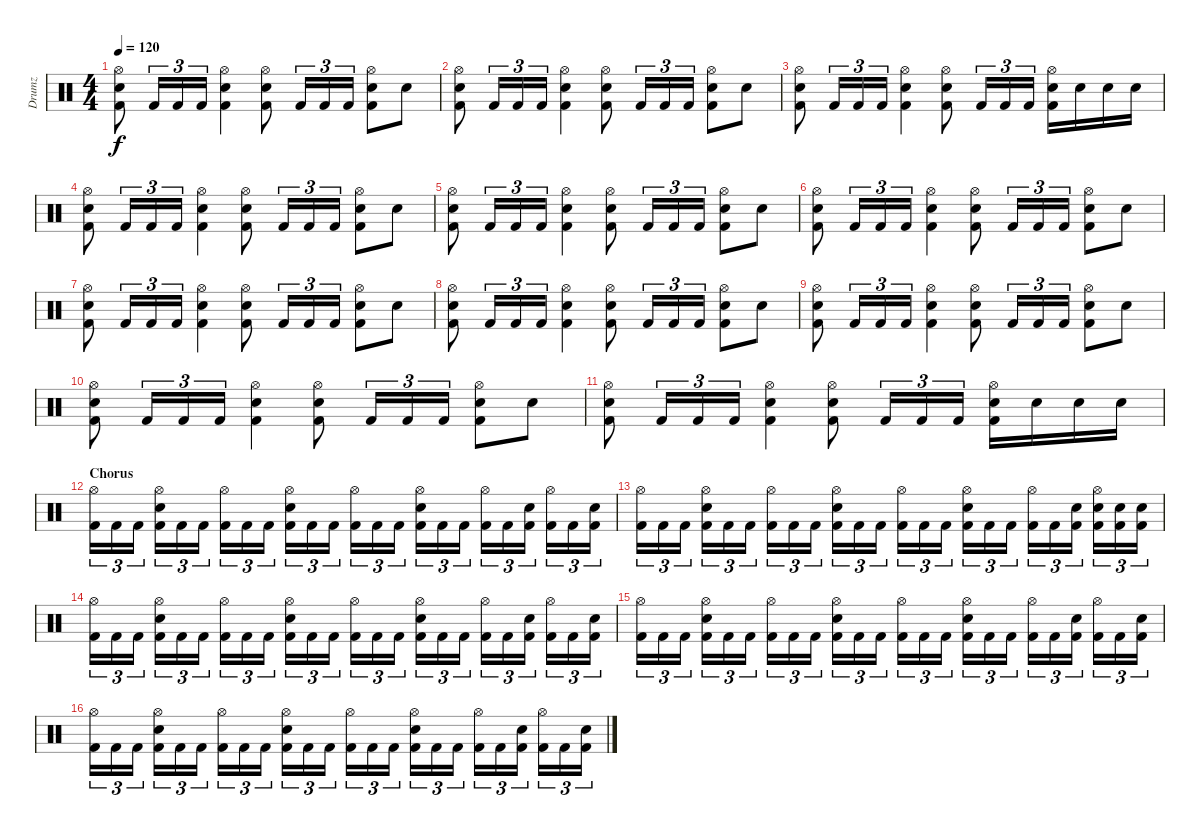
\track ("Drumz" "Drumz") {instrument percussion}
\staff {score}
\articulation defaults
\ts (4 4)
\tempo 120
\clef neutral
\ks c
("Hi-Hat (open)" "Snare (hit) 2" "Kick (hit) 2").8{dy f} "Kick (hit) 2".16{tu (3 2)} "Kick (hit) 2".16{tu (3 2)} "Kick (hit) 2".16{tu (3 2)} ("Hi-Hat (open)" "Snare (hit) 2" "Kick (hit) 2").4 ("Hi-Hat (open)" "Snare (hit) 2" "Kick (hit) 2").8 "Kick (hit) 2".16{tu (3 2)} "Kick (hit) 2".16{tu (3 2)} "Kick (hit) 2".16{tu (3 2)} ("Hi-Hat (open)" "Snare (hit) 2" "Kick (hit) 2").8 "Snare (hit) 2".8 |
("Hi-Hat (open)" "Snare (hit) 2" "Kick (hit) 2").8 "Kick (hit) 2".16{tu (3 2)} "Kick (hit) 2".16{tu (3 2)} "Kick (hit) 2".16{tu (3 2)} ("Hi-Hat (open)" "Snare (hit) 2" "Kick (hit) 2").4 ("Hi-Hat (open)" "Snare (hit) 2" "Kick (hit) 2").8 "Kick (hit) 2".16{tu (3 2)} "Kick (hit) 2".16{tu (3 2)} "Kick (hit) 2".16{tu (3 2)} ("Hi-Hat (open)" "Snare (hit) 2" "Kick (hit) 2").8 "Snare (hit) 2".8 |
("Hi-Hat (open)" "Snare (hit) 2" "Kick (hit) 2").8 "Kick (hit) 2".16{tu (3 2)} "Kick (hit) 2".16{tu (3 2)} "Kick (hit) 2".16{tu (3 2)} ("Hi-Hat (open)" "Snare (hit) 2" "Kick (hit) 2").4 ("Hi-Hat (open)" "Snare (hit) 2" "Kick (hit) 2").8 "Kick (hit) 2".16{tu (3 2)} "Kick (hit) 2".16{tu (3 2)} "Kick (hit) 2".16{tu (3 2)} ("Hi-Hat (open)" "Snare (hit) 2" "Kick (hit) 2").16 "Snare (hit) 2".16 "Snare (hit) 2".16 "Snare (hit) 2".16 |
("Hi-Hat (open)" "Snare (hit) 2" "Kick (hit) 2").8 "Kick (hit) 2".16{tu (3 2)} "Kick (hit) 2".16{tu (3 2)} "Kick (hit) 2".16{tu (3 2)} ("Hi-Hat (open)" "Snare (hit) 2" "Kick (hit) 2").4 ("Hi-Hat (open)" "Snare (hit) 2" "Kick (hit) 2").8 "Kick (hit) 2".16{tu (3 2)} "Kick (hit) 2".16{tu (3 2)} "Kick (hit) 2".16{tu (3 2)} ("Hi-Hat (open)" "Snare (hit) 2" "Kick (hit) 2").8 "Snare (hit) 2".8 |
("Hi-Hat (open)" "Snare (hit) 2" "Kick (hit) 2").8 "Kick (hit) 2".16{tu (3 2)} "Kick (hit) 2".16{tu (3 2)} "Kick (hit) 2".16{tu (3 2)} ("Hi-Hat (open)" "Snare (hit) 2" "Kick (hit) 2").4 ("Hi-Hat (open)" "Snare (hit) 2" "Kick (hit) 2").8 "Kick (hit) 2".16{tu (3 2)} "Kick (hit) 2".16{tu (3 2)} "Kick (hit) 2".16{tu (3 2)} ("Hi-Hat (open)" "Snare (hit) 2" "Kick (hit) 2").8 "Snare (hit) 2".8 |
("Hi-Hat (open)" "Snare (hit) 2" "Kick (hit) 2").8 "Kick (hit) 2".16{tu (3 2)} "Kick (hit) 2".16{tu (3 2)} "Kick (hit) 2".16{tu (3 2)} ("Hi-Hat (open)" "Snare (hit) 2" "Kick (hit) 2").4 ("Hi-Hat (open)" "Snare (hit) 2" "Kick (hit) 2").8 "Kick (hit) 2".16{tu (3 2)} "Kick (hit) 2".16{tu (3 2)} "Kick (hit) 2".16{tu (3 2)} ("Hi-Hat (open)" "Snare (hit) 2" "Kick (hit) 2").8 "Snare (hit) 2".8 |
("Hi-Hat (open)" "Snare (hit) 2" "Kick (hit) 2").8 "Kick (hit) 2".16{tu (3 2)} "Kick (hit) 2".16{tu (3 2)} "Kick (hit) 2".16{tu (3 2)} ("Hi-Hat (open)" "Snare (hit) 2" "Kick (hit) 2").4 ("Hi-Hat (open)" "Snare (hit) 2" "Kick (hit) 2").8 "Kick (hit) 2".16{tu (3 2)} "Kick (hit) 2".16{tu (3 2)} "Kick (hit) 2".16{tu (3 2)} ("Hi-Hat (open)" "Snare (hit) 2" "Kick (hit) 2").8 "Snare (hit) 2".8 |
("Hi-Hat (open)" "Snare (hit) 2" "Kick (hit) 2").8 "Kick (hit) 2".16{tu (3 2)} "Kick (hit) 2".16{tu (3 2)} "Kick (hit) 2".16{tu (3 2)} ("Hi-Hat (open)" "Snare (hit) 2" "Kick (hit) 2").4 ("Hi-Hat (open)" "Snare (hit) 2" "Kick (hit) 2").8 "Kick (hit) 2".16{tu (3 2)} "Kick (hit) 2".16{tu (3 2)} "Kick (hit) 2".16{tu (3 2)} ("Hi-Hat (open)" "Snare (hit) 2" "Kick (hit) 2").8 "Snare (hit) 2".8 |
("Hi-Hat (open)" "Snare (hit) 2" "Kick (hit) 2").8 "Kick (hit) 2".16{tu (3 2)} "Kick (hit) 2".16{tu (3 2)} "Kick (hit) 2".16{tu (3 2)} ("Hi-Hat (open)" "Snare (hit) 2" "Kick (hit) 2").4 ("Hi-Hat (open)" "Snare (hit) 2" "Kick (hit) 2").8 "Kick (hit) 2".16{tu (3 2)} "Kick (hit) 2".16{tu (3 2)} "Kick (hit) 2".16{tu (3 2)} ("Hi-Hat (open)" "Snare (hit) 2" "Kick (hit) 2").8 "Snare (hit) 2".8 |
("Hi-Hat (open)" "Snare (hit) 2" "Kick (hit) 2").8 "Kick (hit) 2".16{tu (3 2)} "Kick (hit) 2".16{tu (3 2)} "Kick (hit) 2".16{tu (3 2)} ("Hi-Hat (open)" "Snare (hit) 2" "Kick (hit) 2").4 ("Hi-Hat (open)" "Snare (hit) 2" "Kick (hit) 2").8 "Kick (hit) 2".16{tu (3 2)} "Kick (hit) 2".16{tu (3 2)} "Kick (hit) 2".16{tu (3 2)} ("Hi-Hat (open)" "Snare (hit) 2" "Kick (hit) 2").8 "Snare (hit) 2".8 |
("Hi-Hat (open)" "Snare (hit) 2" "Kick (hit) 2").8 "Kick (hit) 2".16{tu (3 2)} "Kick (hit) 2".16{tu (3 2)} "Kick (hit) 2".16{tu (3 2)} ("Hi-Hat (open)" "Snare (hit) 2" "Kick (hit) 2").4 ("Hi-Hat (open)" "Snare (hit) 2" "Kick (hit) 2").8 "Kick (hit) 2".16{tu (3 2)} "Kick (hit) 2".16{tu (3 2)} "Kick (hit) 2".16{tu (3 2)} ("Hi-Hat (open)" "Snare (hit) 2" "Kick (hit) 2").16 "Snare (hit) 2".16 "Snare (hit) 2".16 "Snare (hit) 2".16 |
\section ("" "Chorus")
("Hi-Hat (open)" "Kick (hit) 2").16{tu (3 2)} "Kick (hit) 2".16{tu (3 2)} "Kick (hit) 2".16{tu (3 2)} ("Hi-Hat (open)" "Snare (hit) 2" "Kick (hit) 2").16{tu (3 2)} "Kick (hit) 2".16{tu (3 2)} "Kick (hit) 2".16{tu (3 2)} ("Hi-Hat (open)" "Kick (hit) 2").16{tu (3 2)} "Kick (hit) 2".16{tu (3 2)} "Kick (hit) 2".16{tu (3 2)} ("Hi-Hat (open)" "Snare (hit) 2" "Kick (hit) 2").16{tu (3 2)} "Kick (hit) 2".16{tu (3 2)} "Kick (hit) 2".16{tu (3 2)} ("Hi-Hat (open)" "Kick (hit) 2").16{tu (3 2)} "Kick (hit) 2".16{tu (3 2)} "Kick (hit) 2".16{tu (3 2)} ("Hi-Hat (open)" "Snare (hit) 2" "Kick (hit) 2").16{tu (3 2)} "Kick (hit) 2".16{tu (3 2)} "Kick (hit) 2".16{tu (3 2)} ("Hi-Hat (open)" "Kick (hit) 2").16{tu (3 2)} "Kick (hit) 2".16{tu (3 2)} ("Snare (hit) 2" "Kick (hit) 2").16{tu (3 2)} ("Hi-Hat (open)" "Kick (hit) 2").16{tu (3 2)} "Kick (hit) 2".16{tu (3 2)} ("Snare (hit) 2" "Kick (hit) 2").16{tu (3 2)} |
("Hi-Hat (open)" "Kick (hit) 2").16{tu (3 2)} "Kick (hit) 2".16{tu (3 2)} "Kick (hit) 2".16{tu (3 2)} ("Hi-Hat (open)" "Snare (hit) 2" "Kick (hit) 2").16{tu (3 2)} "Kick (hit) 2".16{tu (3 2)} "Kick (hit) 2".16{tu (3 2)} ("Hi-Hat (open)" "Kick (hit) 2").16{tu (3 2)} "Kick (hit) 2".16{tu (3 2)} "Kick (hit) 2".16{tu (3 2)} ("Hi-Hat (open)" "Snare (hit) 2" "Kick (hit) 2").16{tu (3 2)} "Kick (hit) 2".16{tu (3 2)} "Kick (hit) 2".16{tu (3 2)} ("Hi-Hat (open)" "Kick (hit) 2").16{tu (3 2)} "Kick (hit) 2".16{tu (3 2)} "Kick (hit) 2".16{tu (3 2)} ("Hi-Hat (open)" "Snare (hit) 2" "Kick (hit) 2").16{tu (3 2)} "Kick (hit) 2".16{tu (3 2)} "Kick (hit) 2".16{tu (3 2)} ("Hi-Hat (open)" "Kick (hit) 2").16{tu (3 2)} "Kick (hit) 2".16{tu (3 2)} ("Snare (hit) 2" "Kick (hit) 2").16{tu (3 2)} ("Hi-Hat (open)" "Snare (hit) 2" "Kick (hit) 2").16{tu (3 2)} ("Snare (hit) 2" "Kick (hit) 2").16{tu (3 2)} ("Snare (hit) 2" "Kick (hit) 2").16{tu (3 2)} |
("Hi-Hat (open)" "Kick (hit) 2").16{tu (3 2)} "Kick (hit) 2".16{tu (3 2)} "Kick (hit) 2".16{tu (3 2)} ("Hi-Hat (open)" "Snare (hit) 2" "Kick (hit) 2").16{tu (3 2)} "Kick (hit) 2".16{tu (3 2)} "Kick (hit) 2".16{tu (3 2)} ("Hi-Hat (open)" "Kick (hit) 2").16{tu (3 2)} "Kick (hit) 2".16{tu (3 2)} "Kick (hit) 2".16{tu (3 2)} ("Hi-Hat (open)" "Snare (hit) 2" "Kick (hit) 2").16{tu (3 2)} "Kick (hit) 2".16{tu (3 2)} "Kick (hit) 2".16{tu (3 2)} ("Hi-Hat (open)" "Kick (hit) 2").16{tu (3 2)} "Kick (hit) 2".16{tu (3 2)} "Kick (hit) 2".16{tu (3 2)} ("Hi-Hat (open)" "Snare (hit) 2" "Kick (hit) 2").16{tu (3 2)} "Kick (hit) 2".16{tu (3 2)} "Kick (hit) 2".16{tu (3 2)} ("Hi-Hat (open)" "Kick (hit) 2").16{tu (3 2)} "Kick (hit) 2".16{tu (3 2)} ("Snare (hit) 2" "Kick (hit) 2").16{tu (3 2)} ("Hi-Hat (open)" "Kick (hit) 2").16{tu (3 2)} "Kick (hit) 2".16{tu (3 2)} ("Snare (hit) 2" "Kick (hit) 2").16{tu (3 2)} |
("Hi-Hat (open)" "Kick (hit) 2").16{tu (3 2)} "Kick (hit) 2".16{tu (3 2)} "Kick (hit) 2".16{tu (3 2)} ("Hi-Hat (open)" "Snare (hit) 2" "Kick (hit) 2").16{tu (3 2)} "Kick (hit) 2".16{tu (3 2)} "Kick (hit) 2".16{tu (3 2)} ("Hi-Hat (open)" "Kick (hit) 2").16{tu (3 2)} "Kick (hit) 2".16{tu (3 2)} "Kick (hit) 2".16{tu (3 2)} ("Hi-Hat (open)" "Snare (hit) 2" "Kick (hit) 2").16{tu (3 2)} "Kick (hit) 2".16{tu (3 2)} "Kick (hit) 2".16{tu (3 2)} ("Hi-Hat (open)" "Kick (hit) 2").16{tu (3 2)} "Kick (hit) 2".16{tu (3 2)} "Kick (hit) 2".16{tu (3 2)} ("Hi-Hat (open)" "Snare (hit) 2" "Kick (hit) 2").16{tu (3 2)} "Kick (hit) 2".16{tu (3 2)} "Kick (hit) 2".16{tu (3 2)} ("Hi-Hat (open)" "Kick (hit) 2").16{tu (3 2)} "Kick (hit) 2".16{tu (3 2)} ("Snare (hit) 2" "Kick (hit) 2").16{tu (3 2)} ("Hi-Hat (open)" "Kick (hit) 2").16{tu (3 2)} "Kick (hit) 2".16{tu (3 2)} ("Snare (hit) 2" "Kick (hit) 2").16{tu (3 2)} |
("Hi-Hat (open)" "Kick (hit) 2").16{tu (3 2)} "Kick (hit) 2".16{tu (3 2)} "Kick (hit) 2".16{tu (3 2)} ("Hi-Hat (open)" "Snare (hit) 2" "Kick (hit) 2").16{tu (3 2)} "Kick (hit) 2".16{tu (3 2)} "Kick (hit) 2".16{tu (3 2)} ("Hi-Hat (open)" "Kick (hit) 2").16{tu (3 2)} "Kick (hit) 2".16{tu (3 2)} "Kick (hit) 2".16{tu (3 2)} ("Hi-Hat (open)" "Snare (hit) 2" "Kick (hit) 2").16{tu (3 2)} "Kick (hit) 2".16{tu (3 2)} "Kick (hit) 2".16{tu (3 2)} ("Hi-Hat (open)" "Kick (hit) 2").16{tu (3 2)} "Kick (hit) 2".16{tu (3 2)} "Kick (hit) 2".16{tu (3 2)} ("Hi-Hat (open)" "Snare (hit) 2" "Kick (hit) 2").16{tu (3 2)} "Kick (hit) 2".16{tu (3 2)} "Kick (hit) 2".16{tu (3 2)} ("Hi-Hat (open)" "Kick (hit) 2").16{tu (3 2)} "Kick (hit) 2".16{tu (3 2)} ("Snare (hit) 2" "Kick (hit) 2").16{tu (3 2)} ("Hi-Hat (open)" "Kick (hit) 2").16{tu (3 2)} "Kick (hit) 2".16{tu (3 2)} ("Snare (hit) 2" "Kick (hit) 2").16{tu (3 2)}
